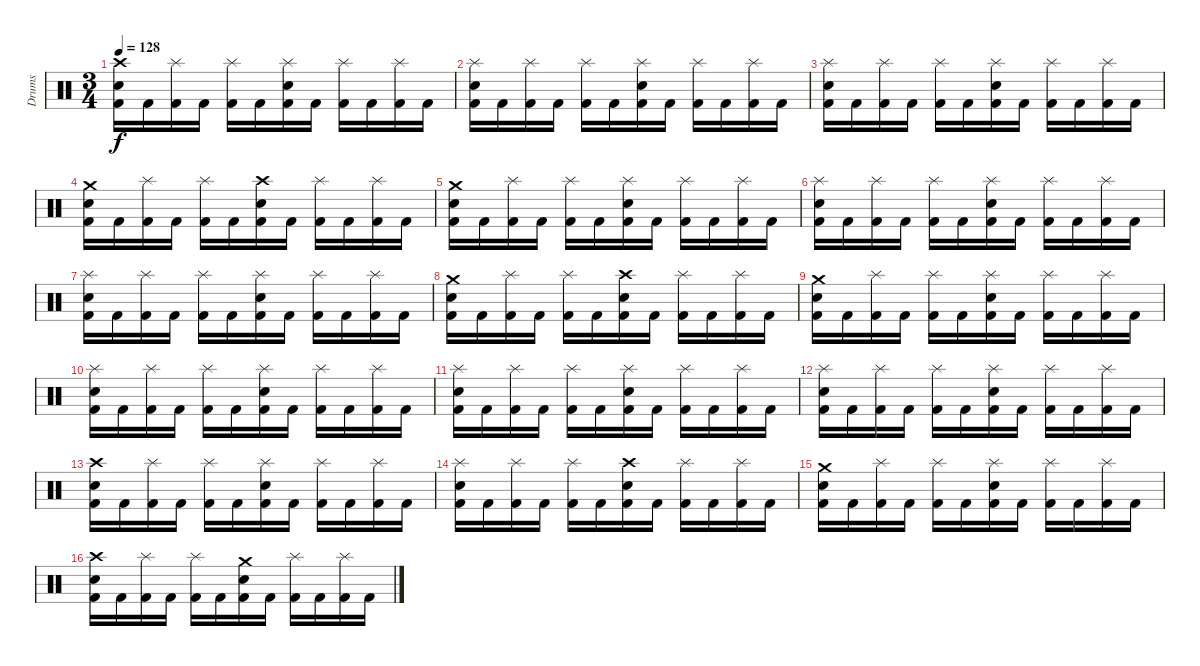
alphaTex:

\track ("Drums" "Drums") {instrument percussion}
\staff {score}
\articulation defaults
\ts (3 4)
\tempo 128
\clef neutral
\ks c
("Crash high (hit)" "Snare (hit) 2" "Kick (hit) 2").16{dy f} "Kick (hit) 2".16 ("Splash (hit)" "Kick (hit) 2").16 "Kick (hit) 2".16 ("Splash (hit)" "Kick (hit) 2").16 "Kick (hit) 2".16 ("Splash (hit)" "Snare (hit) 2" "Kick (hit) 2").16 "Kick (hit) 2".16 ("Splash (hit)" "Kick (hit) 2").16 "Kick (hit) 2".16 ("Splash (hit)" "Kick (hit) 2").16 "Kick (hit) 2".16 |
("Splash (hit)" "Snare (hit) 2" "Kick (hit) 2").16 "Kick (hit) 2".16 ("Splash (hit)" "Kick (hit) 2").16 "Kick (hit) 2".16 ("Splash (hit)" "Kick (hit) 2").16 "Kick (hit) 2".16 ("Splash (hit)" "Snare (hit) 2" "Kick (hit) 2").16 "Kick (hit) 2".16 ("Splash (hit)" "Kick (hit) 2").16 "Kick (hit) 2".16 ("Splash (hit)" "Kick (hit) 2").16 "Kick (hit) 2".16 |
("Splash (hit)" "Snare (hit) 2" "Kick (hit) 2").16 "Kick (hit) 2".16 ("Splash (hit)" "Kick (hit) 2").16 "Kick (hit) 2".16 ("Splash (hit)" "Kick (hit) 2").16 "Kick (hit) 2".16 ("Splash (hit)" "Snare (hit) 2" "Kick (hit) 2").16 "Kick (hit) 2".16 ("Splash (hit)" "Kick (hit) 2").16 "Kick (hit) 2".16 ("Splash (hit)" "Kick (hit) 2").16 "Kick (hit) 2".16 |
("Crash medium (hit)" "Snare (hit) 2" "Kick (hit) 2").16 "Kick (hit) 2".16 ("Splash (hit)" "Kick (hit) 2").16 "Kick (hit) 2".16 ("Splash (hit)" "Kick (hit) 2").16 "Kick (hit) 2".16 ("Crash high (hit)" "Snare (hit) 2" "Kick (hit) 2").16 "Kick (hit) 2".16 ("Splash (hit)" "Kick (hit) 2").16 "Kick (hit) 2".16 ("Splash (hit)" "Kick (hit) 2").16 "Kick (hit) 2".16 |
("Crash medium (hit)" "Snare (hit) 2" "Kick (hit) 2").16 "Kick (hit) 2".16 ("Splash (hit)" "Kick (hit) 2").16 "Kick (hit) 2".16 ("Splash (hit)" "Kick (hit) 2").16 "Kick (hit) 2".16 ("Splash (hit)" "Snare (hit) 2" "Kick (hit) 2").16 "Kick (hit) 2".16 ("Splash (hit)" "Kick (hit) 2").16 "Kick (hit) 2".16 ("Splash (hit)" "Kick (hit) 2").16 "Kick (hit) 2".16 |
("Splash (hit)" "Snare (hit) 2" "Kick (hit) 2").16 "Kick (hit) 2".16 ("Splash (hit)" "Kick (hit) 2").16 "Kick (hit) 2".16 ("Splash (hit)" "Kick (hit) 2").16 "Kick (hit) 2".16 ("Splash (hit)" "Snare (hit) 2" "Kick (hit) 2").16 "Kick (hit) 2".16 ("Splash (hit)" "Kick (hit) 2").16 "Kick (hit) 2".16 ("Splash (hit)" "Kick (hit) 2").16 "Kick (hit) 2".16 |
("Splash (hit)" "Snare (hit) 2" "Kick (hit) 2").16 "Kick (hit) 2".16 ("Splash (hit)" "Kick (hit) 2").16 "Kick (hit) 2".16 ("Splash (hit)" "Kick (hit) 2").16 "Kick (hit) 2".16 ("Splash (hit)" "Snare (hit) 2" "Kick (hit) 2").16 "Kick (hit) 2".16 ("Splash (hit)" "Kick (hit) 2").16 "Kick (hit) 2".16 ("Splash (hit)" "Kick (hit) 2").16 "Kick (hit) 2".16 |
("Crash medium (hit)" "Snare (hit) 2" "Kick (hit) 2").16 "Kick (hit) 2".16 ("Splash (hit)" "Kick (hit) 2").16 "Kick (hit) 2".16 ("Splash (hit)" "Kick (hit) 2").16 "Kick (hit) 2".16 ("Crash high (hit)" "Snare (hit) 2" "Kick (hit) 2").16 "Kick (hit) 2".16 ("Splash (hit)" "Kick (hit) 2").16 "Kick (hit) 2".16 ("Splash (hit)" "Kick (hit) 2").16 "Kick (hit) 2".16 |
("Crash medium (hit)" "Snare (hit) 2" "Kick (hit) 2").16 "Kick (hit) 2".16 ("Splash (hit)" "Kick (hit) 2").16 "Kick (hit) 2".16 ("Splash (hit)" "Kick (hit) 2").16 "Kick (hit) 2".16 ("Splash (hit)" "Snare (hit) 2" "Kick (hit) 2").16 "Kick (hit) 2".16 ("Splash (hit)" "Kick (hit) 2").16 "Kick (hit) 2".16 ("Splash (hit)" "Kick (hit) 2").16 "Kick (hit) 2".16 |
("Splash (hit)" "Snare (hit) 2" "Kick (hit) 2").16 "Kick (hit) 2".16 ("Splash (hit)" "Kick (hit) 2").16 "Kick (hit) 2".16 ("Splash (hit)" "Kick (hit) 2").16 "Kick (hit) 2".16 ("Splash (hit)" "Snare (hit) 2" "Kick (hit) 2").16 "Kick (hit) 2".16 ("Splash (hit)" "Kick (hit) 2").16 "Kick (hit) 2".16 ("Splash (hit)" "Kick (hit) 2").16 "Kick (hit) 2".16 |
("Splash (hit)" "Snare (hit) 2" "Kick (hit) 2").16 "Kick (hit) 2".16 ("Splash (hit)" "Kick (hit) 2").16 "Kick (hit) 2".16 ("Splash (hit)" "Kick (hit) 2").16 "Kick (hit) 2".16 ("Splash (hit)" "Snare (hit) 2" "Kick (hit) 2").16 "Kick (hit) 2".16 ("Splash (hit)" "Kick (hit) 2").16 "Kick (hit) 2".16 ("Splash (hit)" "Kick (hit) 2").16 "Kick (hit) 2".16 |
("Splash (hit)" "Snare (hit) 2" "Kick (hit) 2").16 "Kick (hit) 2".16 ("Splash (hit)" "Kick (hit) 2").16 "Kick (hit) 2".16 ("Splash (hit)" "Kick (hit) 2").16 "Kick (hit) 2".16 ("Splash (hit)" "Snare (hit) 2" "Kick (hit) 2").16 "Kick (hit) 2".16 ("Splash (hit)" "Kick (hit) 2").16 "Kick (hit) 2".16 ("Splash (hit)" "Kick (hit) 2").16 "Kick (hit) 2".16 |
("Crash high (hit)" "Snare (hit) 2" "Kick (hit) 2").16 "Kick (hit) 2".16 ("Splash (hit)" "Kick (hit) 2").16 "Kick (hit) 2".16 ("Splash (hit)" "Kick (hit) 2").16 "Kick (hit) 2".16 ("Splash (hit)" "Snare (hit) 2" "Kick (hit) 2").16 "Kick (hit) 2".16 ("Splash (hit)" "Kick (hit) 2").16 "Kick (hit) 2".16 ("Splash (hit)" "Kick (hit) 2").16 "Kick (hit) 2".16 |
("Splash (hit)" "Snare (hit) 2" "Kick (hit) 2").16 "Kick (hit) 2".16 ("Splash (hit)" "Kick (hit) 2").16 "Kick (hit) 2".16 ("Splash (hit)" "Kick (hit) 2").16 "Kick (hit) 2".16 ("Crash high (hit)" "Snare (hit) 2" "Kick (hit) 2").16 "Kick (hit) 2".16 ("Splash (hit)" "Kick (hit) 2").16 "Kick (hit) 2".16 ("Splash (hit)" "Kick (hit) 2").16 "Kick (hit) 2".16 |
("Crash medium (hit)" "Snare (hit) 2" "Kick (hit) 2").16 "Kick (hit) 2".16 ("Splash (hit)" "Kick (hit) 2").16 "Kick (hit) 2".16 ("Splash (hit)" "Kick (hit) 2").16 "Kick (hit) 2".16 ("Splash (hit)" "Snare (hit) 2" "Kick (hit) 2").16 "Kick (hit) 2".16 ("Splash (hit)" "Kick (hit) 2").16 "Kick (hit) 2".16 ("Splash (hit)" "Kick (hit) 2").16 "Kick (hit) 2".16 |
("Crash high (hit)" "Snare (hit) 2" "Kick (hit) 2").16 "Kick (hit) 2".16 ("Splash (hit)" "Kick (hit) 2").16 "Kick (hit) 2".16 ("Splash (hit)" "Kick (hit) 2").16 "Kick (hit) 2".16 ("Crash medium (hit)" "Snare (hit) 2" "Kick (hit) 2").16 "Kick (hit) 2".16 ("Splash (hit)" "Kick (hit) 2").16 "Kick (hit) 2".16 ("Splash (hit)" "Kick (hit) 2").16 "Kick (hit) 2".16
